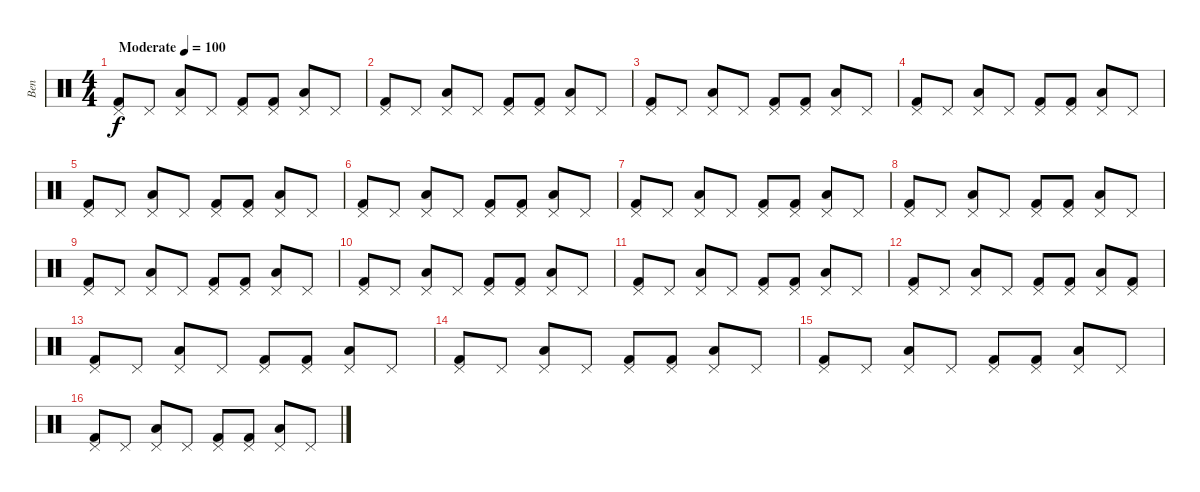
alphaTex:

\track ("Ben" "Ben") {instrument percussion}
\staff {score}
\articulation defaults
\ts (4 4)
\tempo (100 "Moderate")
\clef neutral
\ks c
("Pedal Hi-Hat (hit)" "Kick (hit) 2").8{dy f} "Pedal Hi-Hat (hit)".8 ("Pedal Hi-Hat (hit)" "Low Floor Tom (hit)").8 "Pedal Hi-Hat (hit)".8 ("Pedal Hi-Hat (hit)" "Kick (hit) 2").8 ("Pedal Hi-Hat (hit)" "Kick (hit) 2").8 ("Pedal Hi-Hat (hit)" "Low Floor Tom (hit)").8 "Pedal Hi-Hat (hit)".8 |
("Pedal Hi-Hat (hit)" "Kick (hit) 2").8 "Pedal Hi-Hat (hit)".8 ("Pedal Hi-Hat (hit)" "Low Floor Tom (hit)").8 "Pedal Hi-Hat (hit)".8 ("Pedal Hi-Hat (hit)" "Kick (hit) 2").8 ("Pedal Hi-Hat (hit)" "Kick (hit) 2").8 ("Pedal Hi-Hat (hit)" "Low Floor Tom (hit)").8 "Pedal Hi-Hat (hit)".8 |
("Pedal Hi-Hat (hit)" "Kick (hit) 2").8 "Pedal Hi-Hat (hit)".8 ("Pedal Hi-Hat (hit)" "Low Floor Tom (hit)").8 "Pedal Hi-Hat (hit)".8 ("Pedal Hi-Hat (hit)" "Kick (hit) 2").8 ("Pedal Hi-Hat (hit)" "Kick (hit) 2").8 ("Pedal Hi-Hat (hit)" "Low Floor Tom (hit)").8 "Pedal Hi-Hat (hit)".8 |
("Pedal Hi-Hat (hit)" "Kick (hit) 2").8 "Pedal Hi-Hat (hit)".8 ("Pedal Hi-Hat (hit)" "Low Floor Tom (hit)").8 "Pedal Hi-Hat (hit)".8 ("Pedal Hi-Hat (hit)" "Kick (hit) 2").8 ("Pedal Hi-Hat (hit)" "Kick (hit) 2").8 ("Pedal Hi-Hat (hit)" "Low Floor Tom (hit)").8 "Pedal Hi-Hat (hit)".8 |
("Pedal Hi-Hat (hit)" "Kick (hit) 2").8 "Pedal Hi-Hat (hit)".8 ("Pedal Hi-Hat (hit)" "Low Floor Tom (hit)").8 "Pedal Hi-Hat (hit)".8 ("Pedal Hi-Hat (hit)" "Kick (hit) 2").8 ("Pedal Hi-Hat (hit)" "Kick (hit) 2").8 ("Pedal Hi-Hat (hit)" "Low Floor Tom (hit)").8 "Pedal Hi-Hat (hit)".8 |
("Pedal Hi-Hat (hit)" "Kick (hit) 2").8 "Pedal Hi-Hat (hit)".8 ("Pedal Hi-Hat (hit)" "Low Floor Tom (hit)").8 "Pedal Hi-Hat (hit)".8 ("Pedal Hi-Hat (hit)" "Kick (hit) 2").8 ("Pedal Hi-Hat (hit)" "Kick (hit) 2").8 ("Pedal Hi-Hat (hit)" "Low Floor Tom (hit)").8 "Pedal Hi-Hat (hit)".8 |
("Pedal Hi-Hat (hit)" "Kick (hit) 2").8 "Pedal Hi-Hat (hit)".8 ("Pedal Hi-Hat (hit)" "Low Floor Tom (hit)").8 "Pedal Hi-Hat (hit)".8 ("Pedal Hi-Hat (hit)" "Kick (hit) 2").8 ("Pedal Hi-Hat (hit)" "Kick (hit) 2").8 ("Pedal Hi-Hat (hit)" "Low Floor Tom (hit)").8 "Pedal Hi-Hat (hit)".8 |
("Pedal Hi-Hat (hit)" "Kick (hit) 2").8 "Pedal Hi-Hat (hit)".8 ("Pedal Hi-Hat (hit)" "Low Floor Tom (hit)").8 "Pedal Hi-Hat (hit)".8 ("Pedal Hi-Hat (hit)" "Kick (hit) 2").8 ("Pedal Hi-Hat (hit)" "Kick (hit) 2").8 ("Pedal Hi-Hat (hit)" "Low Floor Tom (hit)").8 "Pedal Hi-Hat (hit)".8 |
("Pedal Hi-Hat (hit)" "Kick (hit) 2").8 "Pedal Hi-Hat (hit)".8 ("Pedal Hi-Hat (hit)" "Low Floor Tom (hit)").8 "Pedal Hi-Hat (hit)".8 ("Pedal Hi-Hat (hit)" "Kick (hit) 2").8 ("Pedal Hi-Hat (hit)" "Kick (hit) 2").8 ("Pedal Hi-Hat (hit)" "Low Floor Tom (hit)").8 "Pedal Hi-Hat (hit)".8 |
("Pedal Hi-Hat (hit)" "Kick (hit) 2").8 "Pedal Hi-Hat (hit)".8 ("Pedal Hi-Hat (hit)" "Low Floor Tom (hit)").8 "Pedal Hi-Hat (hit)".8 ("Pedal Hi-Hat (hit)" "Kick (hit) 2").8 ("Pedal Hi-Hat (hit)" "Kick (hit) 2").8 ("Pedal Hi-Hat (hit)" "Low Floor Tom (hit)").8 "Pedal Hi-Hat (hit)".8 |
("Pedal Hi-Hat (hit)" "Kick (hit) 2").8 "Pedal Hi-Hat (hit)".8 ("Pedal Hi-Hat (hit)" "Low Floor Tom (hit)").8 "Pedal Hi-Hat (hit)".8 ("Pedal Hi-Hat (hit)" "Kick (hit) 2").8 ("Pedal Hi-Hat (hit)" "Kick (hit) 2").8 ("Pedal Hi-Hat (hit)" "Low Floor Tom (hit)").8 "Pedal Hi-Hat (hit)".8 |
("Pedal Hi-Hat (hit)" "Kick (hit) 2").8 "Pedal Hi-Hat (hit)".8 ("Pedal Hi-Hat (hit)" "Low Floor Tom (hit)").8 "Pedal Hi-Hat (hit)".8 ("Pedal Hi-Hat (hit)" "Kick (hit) 2").8 ("Pedal Hi-Hat (hit)" "Kick (hit) 2").8 ("Pedal Hi-Hat (hit)" "Low Floor Tom (hit)").8 ("Pedal Hi-Hat (hit)" "Kick (hit) 2").8 |
("Pedal Hi-Hat (hit)" "Kick (hit) 2").8 "Pedal Hi-Hat (hit)".8 ("Pedal Hi-Hat (hit)" "Low Floor Tom (hit)").8 "Pedal Hi-Hat (hit)".8 ("Pedal Hi-Hat (hit)" "Kick (hit) 2").8 ("Pedal Hi-Hat (hit)" "Kick (hit) 2").8 ("Pedal Hi-Hat (hit)" "Low Floor Tom (hit)").8 "Pedal Hi-Hat (hit)".8 |
("Pedal Hi-Hat (hit)" "Kick (hit) 2").8 "Pedal Hi-Hat (hit)".8 ("Pedal Hi-Hat (hit)" "Low Floor Tom (hit)").8 "Pedal Hi-Hat (hit)".8 ("Pedal Hi-Hat (hit)" "Kick (hit) 2").8 ("Pedal Hi-Hat (hit)" "Kick (hit) 2").8 ("Pedal Hi-Hat (hit)" "Low Floor Tom (hit)").8 "Pedal Hi-Hat (hit)".8 |
("Pedal Hi-Hat (hit)" "Kick (hit) 2").8 "Pedal Hi-Hat (hit)".8 ("Pedal Hi-Hat (hit)" "Low Floor Tom (hit)").8 "Pedal Hi-Hat (hit)".8 ("Pedal Hi-Hat (hit)" "Kick (hit) 2").8 ("Pedal Hi-Hat (hit)" "Kick (hit) 2").8 ("Pedal Hi-Hat (hit)" "Low Floor Tom (hit)").8 "Pedal Hi-Hat (hit)".8 |
("Pedal Hi-Hat (hit)" "Kick (hit) 2").8 "Pedal Hi-Hat (hit)".8 ("Pedal Hi-Hat (hit)" "Low Floor Tom (hit)").8 "Pedal Hi-Hat (hit)".8 ("Pedal Hi-Hat (hit)" "Kick (hit) 2").8 ("Pedal Hi-Hat (hit)" "Kick (hit) 2").8 ("Pedal Hi-Hat (hit)" "Low Floor Tom (hit)").8 "Pedal Hi-Hat (hit)".8
